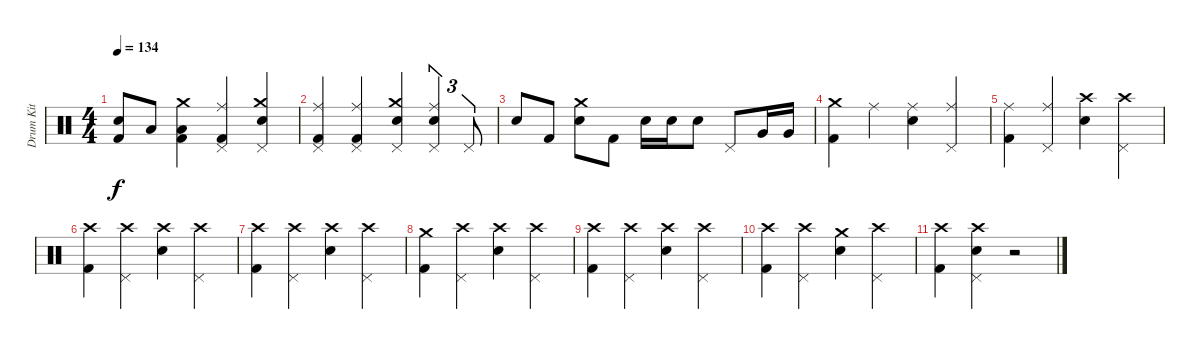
\track ("Drum Kit" "Drum Kit") {instrument percussion}
\staff {score}
\articulation defaults
\ts (4 4)
\tempo 134
\clef neutral
\ks c
("Snare (hit) 2" "Kick (hit) 2").8{dy f} "Low Tom (hit)".8 ("Crash medium (hit)" "Low Tom (hit)" "Kick (hit) 2").4 ("Ride (middle)" "Pedal Hi-Hat (hit)" "Kick (hit) 2").4 ("Crash medium (hit)" "Pedal Hi-Hat (hit)" "Snare (hit) 2").4 |
("Ride (middle)" "Pedal Hi-Hat (hit)" "Kick (hit) 2").4 ("Ride (middle)" "Pedal Hi-Hat (hit)" "Kick (hit) 2").4 ("Crash medium (hit)" "Pedal Hi-Hat (hit)" "Snare (hit) 2").4 ("Ride (middle)" "Pedal Hi-Hat (hit)" "Snare (hit) 2").4{tu (3 2)} "Pedal Hi-Hat (hit)".8{tu (3 2)} |
"Snare (hit) 2".8 "Kick (hit) 2".8 ("Crash medium (hit)" "Snare (hit) 2").8 "Kick (hit) 2".8 "Snare (hit) 2".16 "Snare (hit) 2".16 "Snare (hit) 2".8 "Pedal Hi-Hat (hit)".8 "Very Low Tom (hit)".16 "Very Low Tom (hit)".16 |
("Crash medium (hit)" "Kick (hit) 2").4 "Ride (middle)".4 ("Ride (middle)" "Snare (hit) 2").4 ("Ride (middle)" "Pedal Hi-Hat (hit)").4 |
("Ride (middle)" "Kick (hit) 2").4 ("Ride (middle)" "Pedal Hi-Hat (hit)").4 ("Crash high (hit)" "Snare (hit) 2").4 ("Crash high (hit)" "Pedal Hi-Hat (hit)").4 |
("Crash high (hit)" "Kick (hit) 2").4 ("Crash high (hit)" "Pedal Hi-Hat (hit)").4 ("Crash high (hit)" "Snare (hit) 2").4 ("Crash high (hit)" "Pedal Hi-Hat (hit)").4 |
("Crash high (hit)" "Kick (hit) 2").4 ("Crash high (hit)" "Pedal Hi-Hat (hit)").4 ("Crash high (hit)" "Snare (hit) 2").4 ("Crash high (hit)" "Pedal Hi-Hat (hit)").4 |
("Crash medium (hit)" "Kick (hit) 2").4 ("Crash high (hit)" "Pedal Hi-Hat (hit)").4 ("Crash high (hit)" "Snare (hit) 2").4 ("Crash high (hit)" "Pedal Hi-Hat (hit)").4 |
("Crash high (hit)" "Kick (hit) 2").4 ("Crash high (hit)" "Pedal Hi-Hat (hit)").4 ("Crash high (hit)" "Snare (hit) 2").4 ("Crash high (hit)" "Pedal Hi-Hat (hit)").4 |
("Crash high (hit)" "Kick (hit) 2").4 ("Crash high (hit)" "Pedal Hi-Hat (hit)").4 ("Crash medium (hit)" "Snare (hit) 2").4 ("Crash high (hit)" "Pedal Hi-Hat (hit)").4 |
("Crash high (hit)" "Kick (hit) 2").4 ("Crash high (hit)" "Pedal Hi-Hat (hit)" "Snare (hit) 2").4 r.2
